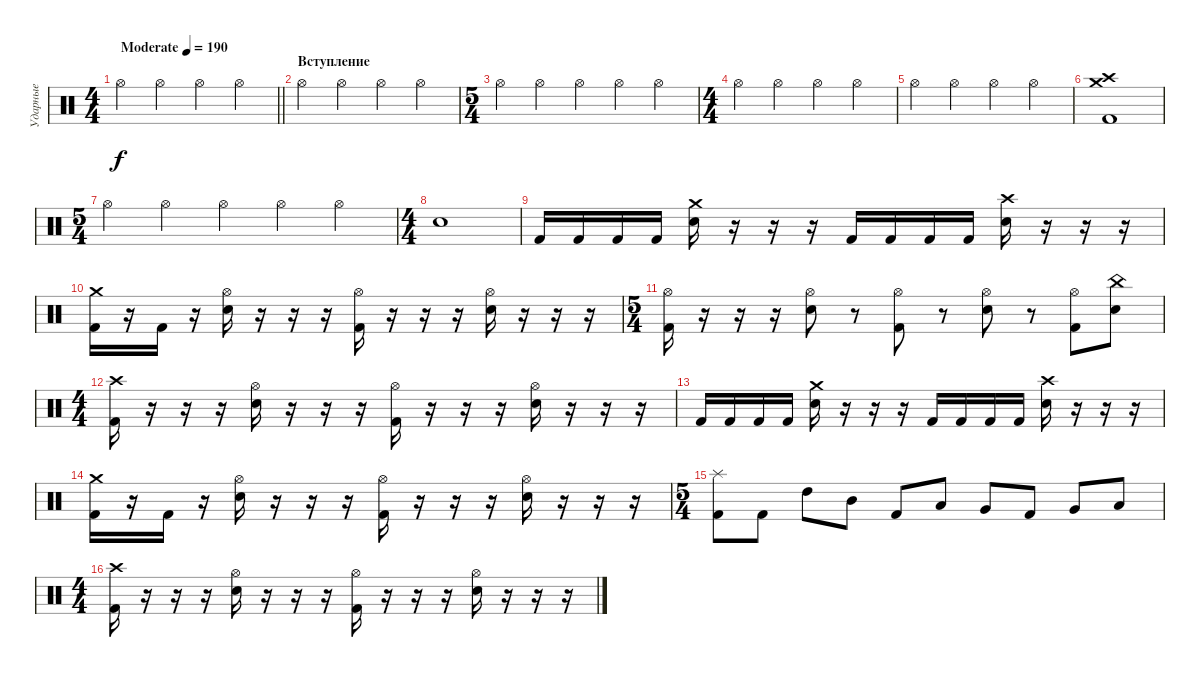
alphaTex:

\track ("Ударные" "Ударные") {instrument percussion}
\staff {score}
\articulation defaults
\ts (4 4)
\tempo (190 "Moderate")
\clef neutral
\barLineRight lightlight
\ks c "Hi-Hat (open)".4{dy f} "Hi-Hat (open)".4 "Hi-Hat (open)".4 "Hi-Hat (open)".4
|
\section ("" "Вступление")
"Hi-Hat (open)".4 "Hi-Hat (open)".4 "Hi-Hat (open)".4 "Hi-Hat (open)".4 |
\ts (5 4)
"Hi-Hat (open)".4 "Hi-Hat (open)".4 "Hi-Hat (open)".4 "Hi-Hat (open)".4 "Hi-Hat (open)".4 |
\ts (4 4)
"Hi-Hat (open)".4 "Hi-Hat (open)".4 "Hi-Hat (open)".4 "Hi-Hat (open)".4 |
"Hi-Hat (open)".4 "Hi-Hat (open)".4 "Hi-Hat (open)".4 "Hi-Hat (open)".4 |
("Kick (hit) 2" "Crash high (hit)" "Crash medium (hit)").1 |
\ts (5 4)
"Hi-Hat (open)".4 "Hi-Hat (open)".4 "Hi-Hat (open)".4 "Hi-Hat (open)".4 "Hi-Hat (open)".4 |
\ts (4 4)
"Electric Snare (hit)".1 |
"Kick (hit) 2".16 "Kick (hit) 2".16 "Kick (hit) 2".16 "Kick (hit) 2".16 ("Electric Snare (hit)" "Crash medium (hit)").16 r.16 r.16 r.16 "Kick (hit) 2".16 "Kick (hit) 2".16 "Kick (hit) 2".16 "Kick (hit) 2".16 ("Electric Snare (hit)" "Crash high (hit)").16 r.16 r.16 r.16 |
("Kick (hit) 2" "Crash medium (hit)").16 r.16 "Kick (hit) 2".16 r.16 ("Electric Snare (hit)" "Hi-Hat (open)").16 r.16 r.16 r.16 ("Kick (hit) 2" "Hi-Hat (open)").16 r.16 r.16 r.16 ("Electric Snare (hit)" "Hi-Hat (open)").16 r.16 r.16 r.16 |
\ts (5 4)
("Kick (hit) 2" "Hi-Hat (open)").16 r.16 r.16 r.16 ("Electric Snare (hit)" "Hi-Hat (open)").8 r.8 ("Kick (hit) 2" "Hi-Hat (open)").8 r.8 ("Electric Snare (hit)" "Hi-Hat (open)").8 r.8 ("Kick (hit) 2" "Hi-Hat (open)").8 ("Electric Snare (hit)" "China (hit)").8 |
\ts (4 4)
("Kick (hit) 2" "Crash high (hit)").16 r.16 r.16 r.16 ("Electric Snare (hit)" "Hi-Hat (open)").16 r.16 r.16 r.16 ("Kick (hit) 2" "Hi-Hat (open)").16 r.16 r.16 r.16 ("Electric Snare (hit)" "Hi-Hat (open)").16 r.16 r.16 r.16 |
"Kick (hit) 2".16 "Kick (hit) 2".16 "Kick (hit) 2".16 "Kick (hit) 2".16 ("Electric Snare (hit)" "Crash medium (hit)").16 r.16 r.16 r.16 "Kick (hit) 2".16 "Kick (hit) 2".16 "Kick (hit) 2".16 "Kick (hit) 2".16 ("Electric Snare (hit)" "Crash high (hit)").16 r.16 r.16 r.16 |
("Kick (hit) 2" "Crash medium (hit)").16 r.16 "Kick (hit) 2".16 r.16 ("Electric Snare (hit)" "Hi-Hat (open)").16 r.16 r.16 r.16 ("Kick (hit) 2" "Hi-Hat (open)").16 r.16 r.16 r.16 ("Electric Snare (hit)" "Hi-Hat (open)").16 r.16 r.16 r.16 |
\ts (5 4)
("Kick (hit) 2" "Splash (hit)").8 "Kick (hit) 2".8 "High Tom (hit)".8 "Mid Tom (hit)".8 "Kick (hit) 2".8 "Low Tom (hit)".8 "Very Low Tom (hit)".8 "Kick (hit) 2".8 "Very Low Tom (hit)".8 "Low Floor Tom (hit)".8 |
\ts (4 4)
("Kick (hit) 2" "Crash high (hit)").16 r.16 r.16 r.16 ("Electric Snare (hit)" "Hi-Hat (open)").16 r.16 r.16 r.16 ("Kick (hit) 2" "Hi-Hat (open)").16 r.16 r.16 r.16 ("Electric Snare (hit)" "Hi-Hat (open)").16 r.16 r.16 r.16
